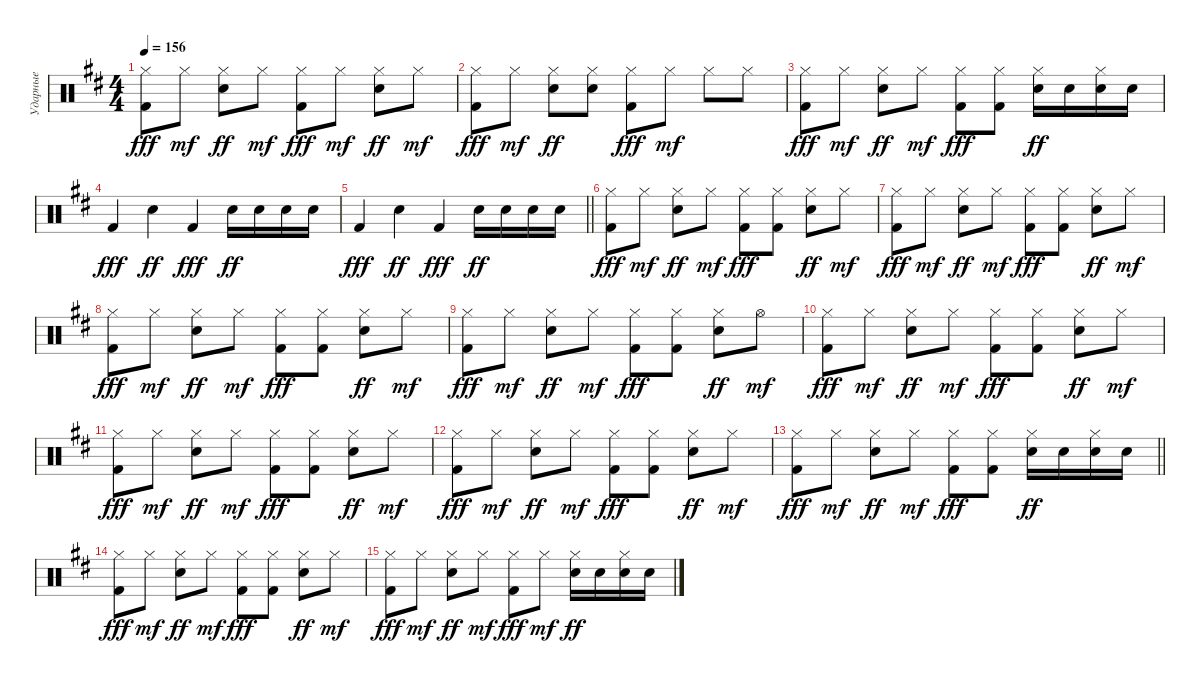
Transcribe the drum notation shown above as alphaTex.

\track ("Ударные" "Ударные") {instrument percussion}
\staff {score}
\articulation defaults
\ts (4 4)
\tempo 156
\clef neutral
\ks bminor
("Hi-Hat (closed)" "Kick (hit) 2").8{dy fff} "Hi-Hat (closed)".8{dy mf} ("Hi-Hat (closed)" "Electric Snare (hit)").8{dy ff} "Hi-Hat (closed)".8{dy mf} ("Hi-Hat (closed)" "Kick (hit) 2").8{dy fff} "Hi-Hat (closed)".8{dy mf} ("Hi-Hat (closed)" "Electric Snare (hit)").8{dy ff} "Hi-Hat (closed)".8{dy mf} |
("Hi-Hat (closed)" "Kick (hit) 2").8{dy fff} "Hi-Hat (closed)".8{dy mf} ("Hi-Hat (closed)" "Electric Snare (hit)").8{dy ff} ("Hi-Hat (closed)" "Electric Snare (hit)").8 ("Hi-Hat (closed)" "Kick (hit) 2").8{dy fff} "Hi-Hat (closed)".8{dy mf} "Hi-Hat (closed)".8 "Hi-Hat (closed)".8 |
("Hi-Hat (closed)" "Kick (hit) 2").8{dy fff} "Hi-Hat (closed)".8{dy mf} ("Hi-Hat (closed)" "Electric Snare (hit)").8{dy ff} "Hi-Hat (closed)".8{dy mf} ("Hi-Hat (closed)" "Kick (hit) 2").8{dy fff} ("Hi-Hat (closed)" "Kick (hit) 2").8 ("Hi-Hat (closed)" "Electric Snare (hit)").16{dy ff} "Electric Snare (hit)".16 ("Hi-Hat (closed)" "Electric Snare (hit)").16 "Electric Snare (hit)".16 |
"Kick (hit) 2".4{dy fff} "Electric Snare (hit)".4{dy ff} "Kick (hit) 2".4{dy fff} "Electric Snare (hit)".16{dy ff} "Electric Snare (hit)".16 "Electric Snare (hit)".16 "Electric Snare (hit)".16 |
\barLineRight lightlight "Kick (hit) 2".4{dy fff} "Electric Snare (hit)".4{dy ff} "Kick (hit) 2".4{dy fff} "Electric Snare (hit)".16{dy ff} "Electric Snare (hit)".16 "Electric Snare (hit)".16 "Electric Snare (hit)".16
|
("Hi-Hat (closed)" "Kick (hit) 2").8{dy fff} "Hi-Hat (closed)".8{dy mf} ("Hi-Hat (closed)" "Electric Snare (hit)").8{dy ff} "Hi-Hat (closed)".8{dy mf} ("Hi-Hat (closed)" "Kick (hit) 2").8{dy fff} ("Hi-Hat (closed)" "Kick (hit) 2").8 ("Hi-Hat (closed)" "Electric Snare (hit)").8{dy ff} "Hi-Hat (closed)".8{dy mf} |
("Hi-Hat (closed)" "Kick (hit) 2").8{dy fff} "Hi-Hat (closed)".8{dy mf} ("Hi-Hat (closed)" "Electric Snare (hit)").8{dy ff} "Hi-Hat (closed)".8{dy mf} ("Hi-Hat (closed)" "Kick (hit) 2").8{dy fff} ("Hi-Hat (closed)" "Kick (hit) 2").8 ("Hi-Hat (closed)" "Electric Snare (hit)").8{dy ff} "Hi-Hat (closed)".8{dy mf} |
("Hi-Hat (closed)" "Kick (hit) 2").8{dy fff} "Hi-Hat (closed)".8{dy mf} ("Hi-Hat (closed)" "Electric Snare (hit)").8{dy ff} "Hi-Hat (closed)".8{dy mf} ("Hi-Hat (closed)" "Kick (hit) 2").8{dy fff} ("Hi-Hat (closed)" "Kick (hit) 2").8 ("Hi-Hat (closed)" "Electric Snare (hit)").8{dy ff} "Hi-Hat (closed)".8{dy mf} |
("Hi-Hat (closed)" "Kick (hit) 2").8{dy fff} "Hi-Hat (closed)".8{dy mf} ("Hi-Hat (closed)" "Electric Snare (hit)").8{dy ff} "Hi-Hat (closed)".8{dy mf} ("Hi-Hat (closed)" "Kick (hit) 2").8{dy fff} ("Hi-Hat (closed)" "Kick (hit) 2").8 ("Hi-Hat (closed)" "Electric Snare (hit)").8{dy ff} "Hi-Hat (open)".8{dy mf} |
("Hi-Hat (closed)" "Kick (hit) 2").8{dy fff} "Hi-Hat (closed)".8{dy mf} ("Hi-Hat (closed)" "Electric Snare (hit)").8{dy ff} "Hi-Hat (closed)".8{dy mf} ("Hi-Hat (closed)" "Kick (hit) 2").8{dy fff} ("Hi-Hat (closed)" "Kick (hit) 2").8 ("Hi-Hat (closed)" "Electric Snare (hit)").8{dy ff} "Hi-Hat (closed)".8{dy mf} |
("Hi-Hat (closed)" "Kick (hit) 2").8{dy fff} "Hi-Hat (closed)".8{dy mf} ("Hi-Hat (closed)" "Electric Snare (hit)").8{dy ff} "Hi-Hat (closed)".8{dy mf} ("Hi-Hat (closed)" "Kick (hit) 2").8{dy fff} ("Hi-Hat (closed)" "Kick (hit) 2").8 ("Hi-Hat (closed)" "Electric Snare (hit)").8{dy ff} "Hi-Hat (closed)".8{dy mf} |
("Hi-Hat (closed)" "Kick (hit) 2").8{dy fff} "Hi-Hat (closed)".8{dy mf} ("Hi-Hat (closed)" "Electric Snare (hit)").8{dy ff} "Hi-Hat (closed)".8{dy mf} ("Hi-Hat (closed)" "Kick (hit) 2").8{dy fff} ("Hi-Hat (closed)" "Kick (hit) 2").8 ("Hi-Hat (closed)" "Electric Snare (hit)").8{dy ff} "Hi-Hat (closed)".8{dy mf} |
\barLineRight lightlight
("Hi-Hat (closed)" "Kick (hit) 2").8{dy fff} "Hi-Hat (closed)".8{dy mf} ("Hi-Hat (closed)" "Electric Snare (hit)").8{dy ff} "Hi-Hat (closed)".8{dy mf} ("Hi-Hat (closed)" "Kick (hit) 2").8{dy fff} ("Hi-Hat (closed)" "Kick (hit) 2").8 ("Hi-Hat (closed)" "Electric Snare (hit)").16{dy ff} "Electric Snare (hit)".16 ("Hi-Hat (closed)" "Electric Snare (hit)").16 "Electric Snare (hit)".16 |
("Hi-Hat (closed)" "Kick (hit) 2").8{dy fff} "Hi-Hat (closed)".8{dy mf} ("Hi-Hat (closed)" "Electric Snare (hit)").8{dy ff} "Hi-Hat (closed)".8{dy mf} ("Hi-Hat (closed)" "Kick (hit) 2").8{dy fff} ("Hi-Hat (closed)" "Kick (hit) 2").8 ("Hi-Hat (closed)" "Electric Snare (hit)").8{dy ff} "Hi-Hat (closed)".8{dy mf} |
("Hi-Hat (closed)" "Kick (hit) 2").8{dy fff} "Hi-Hat (closed)".8{dy mf} ("Hi-Hat (closed)" "Electric Snare (hit)").8{dy ff} "Hi-Hat (closed)".8{dy mf} ("Hi-Hat (closed)" "Kick (hit) 2").8{dy fff} "Hi-Hat (closed)".8{dy mf} ("Hi-Hat (closed)" "Electric Snare (hit)").16{dy ff} "Electric Snare (hit)".16 ("Hi-Hat (closed)" "Electric Snare (hit)").16 "Electric Snare (hit)".16
